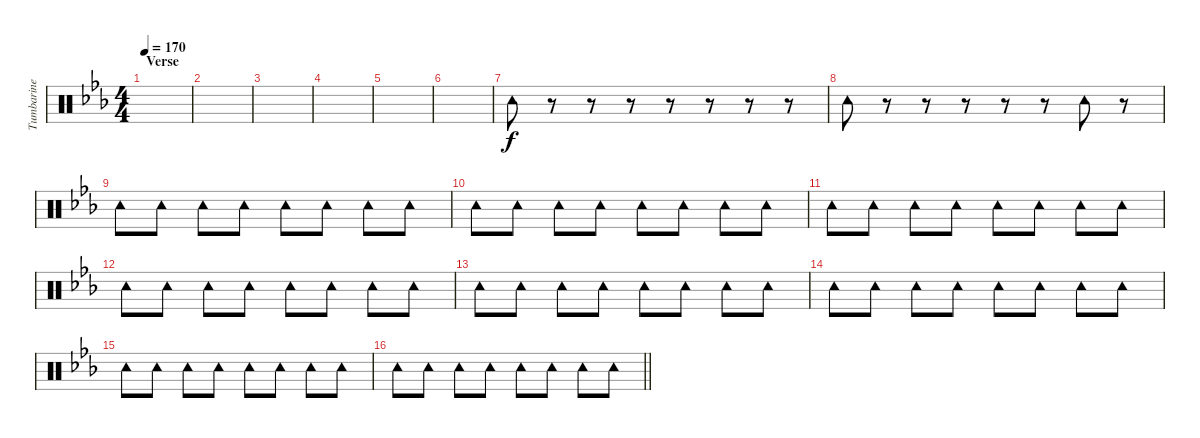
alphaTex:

\track ("Tumbarine" "Tumbarine") {solo instrument percussion}
\staff {score}
\articulation defaults
\ts (4 4)
\section ("" "Verse")
\tempo 170
\clef neutral
\ks eb
|
|
|
|
|
|
"Tambourine (hit)".8 r.8 r.8 r.8 r.8 r.8 r.8 r.8 |
"Tambourine (hit)".8 r.8 r.8 r.8 r.8 r.8 "Tambourine (hit)".8 r.8 |
"Tambourine (hit)".8 "Tambourine (hit)".8 "Tambourine (hit)".8 "Tambourine (hit)".8 "Tambourine (hit)".8 "Tambourine (hit)".8 "Tambourine (hit)".8 "Tambourine (hit)".8 |
"Tambourine (hit)".8 "Tambourine (hit)".8 "Tambourine (hit)".8 "Tambourine (hit)".8 "Tambourine (hit)".8 "Tambourine (hit)".8 "Tambourine (hit)".8 "Tambourine (hit)".8 |
"Tambourine (hit)".8 "Tambourine (hit)".8 "Tambourine (hit)".8 "Tambourine (hit)".8 "Tambourine (hit)".8 "Tambourine (hit)".8 "Tambourine (hit)".8 "Tambourine (hit)".8 |
"Tambourine (hit)".8 "Tambourine (hit)".8 "Tambourine (hit)".8 "Tambourine (hit)".8 "Tambourine (hit)".8 "Tambourine (hit)".8 "Tambourine (hit)".8 "Tambourine (hit)".8 |
"Tambourine (hit)".8 "Tambourine (hit)".8 "Tambourine (hit)".8 "Tambourine (hit)".8 "Tambourine (hit)".8 "Tambourine (hit)".8 "Tambourine (hit)".8 "Tambourine (hit)".8 |
"Tambourine (hit)".8 "Tambourine (hit)".8 "Tambourine (hit)".8 "Tambourine (hit)".8 "Tambourine (hit)".8 "Tambourine (hit)".8 "Tambourine (hit)".8 "Tambourine (hit)".8 |
"Tambourine (hit)".8 "Tambourine (hit)".8 "Tambourine (hit)".8 "Tambourine (hit)".8 "Tambourine (hit)".8 "Tambourine (hit)".8 "Tambourine (hit)".8 "Tambourine (hit)".8 |
\barLineRight lightlight "Tambourine (hit)".8 "Tambourine (hit)".8 "Tambourine (hit)".8 "Tambourine (hit)".8 "Tambourine (hit)".8 "Tambourine (hit)".8 "Tambourine (hit)".8 "Tambourine (hit)".8
